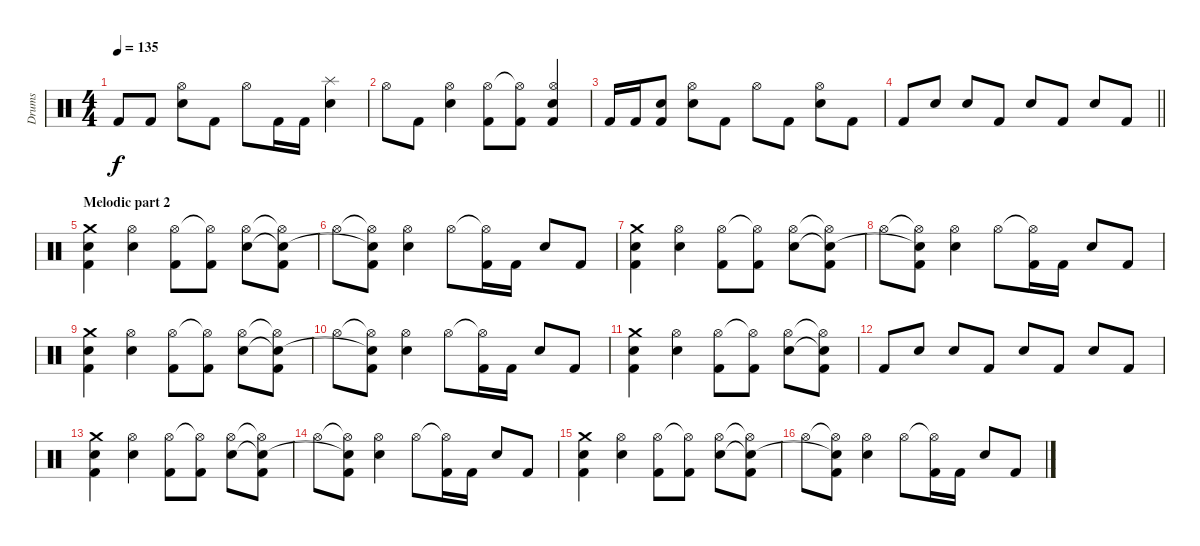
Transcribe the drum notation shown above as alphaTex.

\track ("Drums" "Drums") {instrument percussion}
\staff {score}
\articulation defaults
\ts (4 4)
\tempo 135
\clef neutral
\ks c "Kick (hit) 2".8{dy f} "Kick (hit) 2".8
("Hi-Hat (open)" "Snare (hit) 2").8 "Kick (hit) 2".8 "Hi-Hat (open)".8 "Kick (hit) 2".16 "Kick (hit) 2".16 ("Splash (hit)" "Snare (hit) 2").4 |
"Hi-Hat (open)".8 "Kick (hit) 2".8 ("Hi-Hat (open)" "Snare (hit) 2").4 ("Hi-Hat (open)" "Kick (hit) 2").8 ("Hi-Hat (open)"{t} "Kick (hit) 2").8 ("Hi-Hat (open)" "Snare (hit) 2" "Kick (hit) 2").4 |
"Kick (hit) 2".16 "Kick (hit) 2".16 ("Snare (hit) 2" "Kick (hit) 2").8 ("Hi-Hat (open)" "Snare (hit) 2").8 "Kick (hit) 2".8 "Hi-Hat (open)".8 "Kick (hit) 2".8 ("Hi-Hat (open)" "Snare (hit) 2").8 "Kick (hit) 2".8 |
\barLineRight lightlight "Kick (hit) 2".8 "Snare (hit) 2".8 "Snare (hit) 2".8 "Kick (hit) 2".8 "Snare (hit) 2".8 "Kick (hit) 2".8 "Snare (hit) 2".8 "Kick (hit) 2".8
|
\section ("" "Melodic part 2")
("Crash medium (hit)" "Snare (hit) 2" "Kick (hit) 2").4 ("Hi-Hat (open)" "Snare (hit) 2").4 ("Hi-Hat (open)" "Kick (hit) 2").8 ("Hi-Hat (open)"{t} "Kick (hit) 2").8 ("Hi-Hat (open)" "Snare (hit) 2").8 ("Hi-Hat (open)"{t} "Snare (hit) 2"{t} "Kick (hit) 2").8 |
"Hi-Hat (open)".8 ("Hi-Hat (open)"{t} "Snare (hit) 2"{t} "Kick (hit) 2").8 ("Hi-Hat (open)" "Snare (hit) 2").4 "Hi-Hat (open)".8 ("Hi-Hat (open)"{t} "Kick (hit) 2").16 "Kick (hit) 2".16 "Snare (hit) 2".8 "Kick (hit) 2".8 |
("Crash medium (hit)" "Snare (hit) 2" "Kick (hit) 2").4 ("Hi-Hat (open)" "Snare (hit) 2").4 ("Hi-Hat (open)" "Kick (hit) 2").8 ("Hi-Hat (open)"{t} "Kick (hit) 2").8 ("Hi-Hat (open)" "Snare (hit) 2").8 ("Hi-Hat (open)"{t} "Snare (hit) 2"{t} "Kick (hit) 2").8 |
"Hi-Hat (open)".8 ("Hi-Hat (open)"{t} "Snare (hit) 2"{t} "Kick (hit) 2").8 ("Hi-Hat (open)" "Snare (hit) 2").4 "Hi-Hat (open)".8 ("Hi-Hat (open)"{t} "Kick (hit) 2").16 "Kick (hit) 2".16 "Snare (hit) 2".8 "Kick (hit) 2".8 |
("Crash medium (hit)" "Snare (hit) 2" "Kick (hit) 2").4 ("Hi-Hat (open)" "Snare (hit) 2").4 ("Hi-Hat (open)" "Kick (hit) 2").8 ("Hi-Hat (open)"{t} "Kick (hit) 2").8 ("Hi-Hat (open)" "Snare (hit) 2").8 ("Hi-Hat (open)"{t} "Snare (hit) 2"{t} "Kick (hit) 2").8 |
"Hi-Hat (open)".8 ("Hi-Hat (open)"{t} "Snare (hit) 2"{t} "Kick (hit) 2").8 ("Hi-Hat (open)" "Snare (hit) 2").4 "Hi-Hat (open)".8 ("Hi-Hat (open)"{t} "Kick (hit) 2").16 "Kick (hit) 2".16 "Snare (hit) 2".8 "Kick (hit) 2".8 |
("Crash medium (hit)" "Snare (hit) 2" "Kick (hit) 2").4 ("Hi-Hat (open)" "Snare (hit) 2").4 ("Hi-Hat (open)" "Kick (hit) 2").8 ("Hi-Hat (open)"{t} "Kick (hit) 2").8 ("Hi-Hat (open)" "Snare (hit) 2").8 ("Hi-Hat (open)"{t} "Snare (hit) 2"{t} "Kick (hit) 2").8 |
"Kick (hit) 2".8 "Snare (hit) 2".8 "Snare (hit) 2".8 "Kick (hit) 2".8 "Snare (hit) 2".8 "Kick (hit) 2".8 "Snare (hit) 2".8 "Kick (hit) 2".8 |
("Crash medium (hit)" "Snare (hit) 2" "Kick (hit) 2").4 ("Hi-Hat (open)" "Snare (hit) 2").4 ("Hi-Hat (open)" "Kick (hit) 2").8 ("Hi-Hat (open)"{t} "Kick (hit) 2").8 ("Hi-Hat (open)" "Snare (hit) 2").8 ("Hi-Hat (open)"{t} "Snare (hit) 2"{t} "Kick (hit) 2").8 |
"Hi-Hat (open)".8 ("Hi-Hat (open)"{t} "Snare (hit) 2"{t} "Kick (hit) 2").8 ("Hi-Hat (open)" "Snare (hit) 2").4 "Hi-Hat (open)".8 ("Hi-Hat (open)"{t} "Kick (hit) 2").16 "Kick (hit) 2".16 "Snare (hit) 2".8 "Kick (hit) 2".8 |
("Crash medium (hit)" "Snare (hit) 2" "Kick (hit) 2").4 ("Hi-Hat (open)" "Snare (hit) 2").4 ("Hi-Hat (open)" "Kick (hit) 2").8 ("Hi-Hat (open)"{t} "Kick (hit) 2").8 ("Hi-Hat (open)" "Snare (hit) 2").8 ("Hi-Hat (open)"{t} "Snare (hit) 2"{t} "Kick (hit) 2").8 |
"Hi-Hat (open)".8 ("Hi-Hat (open)"{t} "Snare (hit) 2"{t} "Kick (hit) 2").8 ("Hi-Hat (open)" "Snare (hit) 2").4 "Hi-Hat (open)".8 ("Hi-Hat (open)"{t} "Kick (hit) 2").16 "Kick (hit) 2".16 "Snare (hit) 2".8 "Kick (hit) 2".8
